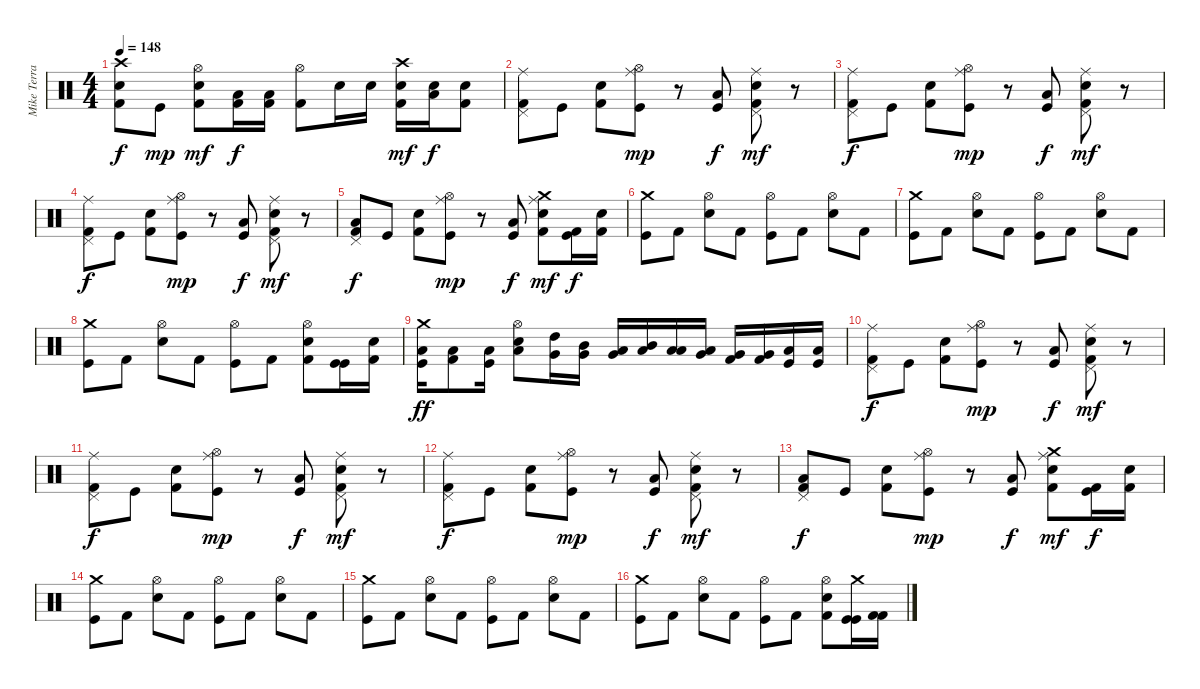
\track ("Mike Terrana" "Mike Terra") {instrument percussion}
\staff {score}
\articulation defaults
\ts (4 4)
\tempo 148
\clef neutral
\ks c
("Crash high (hit)" "Kick (hit) 2" "Snare (hit) 2").8{dy f} "Kick (hit)".8{dy mp} ("Hi-Hat (open)" "Kick (hit) 2" "Snare (hit) 2").8{dy mf} ("Low Floor Tom (hit)" "Kick (hit) 2").16{dy f} ("Low Floor Tom (hit)" "Kick (hit) 2").16 ("Hi-Hat (open)" "Kick (hit) 2").8 "Snare (hit) 2".16 "Snare (hit) 2".16 ("Crash high (hit)" "Kick (hit) 2" "Snare (hit) 2").16{dy mf} ("Low Floor Tom (hit)" "Snare (hit) 2").16{dy f} ("Kick (hit) 2" "Snare (hit) 2").8 |
("Pedal Hi-Hat (hit)" "Ride (middle)" "Kick (hit) 2").8 "Kick (hit)".8 ("Kick (hit) 2" "Snare (hit) 2").8 ("Hi-Hat (open)" "Ride (middle)" "Kick (hit)").8{dy mp} r.8 ("Kick (hit)" "Low Floor Tom (hit)").8{dy f} ("Pedal Hi-Hat (hit)" "Ride (middle)" "Kick (hit) 2" "Snare (hit) 2").8{dy mf} r.8 |
("Pedal Hi-Hat (hit)" "Ride (middle)" "Kick (hit) 2").8{dy f} "Kick (hit)".8 ("Kick (hit) 2" "Snare (hit) 2").8 ("Hi-Hat (open)" "Ride (middle)" "Kick (hit)").8{dy mp} r.8 ("Kick (hit)" "Low Floor Tom (hit)").8{dy f} ("Pedal Hi-Hat (hit)" "Ride (middle)" "Kick (hit) 2" "Snare (hit) 2").8{dy mf} r.8 |
("Pedal Hi-Hat (hit)" "Ride (middle)" "Kick (hit) 2").8{dy f} "Kick (hit)".8 ("Kick (hit) 2" "Snare (hit) 2").8 ("Hi-Hat (open)" "Ride (middle)" "Kick (hit)").8{dy mp} r.8 ("Kick (hit)" "Low Floor Tom (hit)").8{dy f} ("Pedal Hi-Hat (hit)" "Ride (middle)" "Kick (hit) 2" "Snare (hit) 2").8{dy mf} r.8 |
("Pedal Hi-Hat (hit)" "Low Floor Tom (hit)" "Kick (hit) 2").8{dy f} "Kick (hit)".8 ("Kick (hit) 2" "Snare (hit) 2").8 ("Hi-Hat (open)" "Ride (middle)" "Kick (hit)").8{dy mp} r.8 ("Kick (hit)" "Low Floor Tom (hit)").8{dy f} ("Crash medium (hit)" "Ride (middle)" "Kick (hit) 2" "Snare (hit) 2").8{dy mf} ("Kick (hit) 2" "Kick (hit)").16{dy f} ("Kick (hit) 2" "Snare (hit) 2").16 |
("Crash medium (hit)" "Kick (hit)").8 "Kick (hit) 2".8 ("Hi-Hat (open)" "Snare (hit) 2").8 "Kick (hit) 2".8 ("Hi-Hat (open)" "Kick (hit)").8 "Kick (hit) 2".8 ("Hi-Hat (open)" "Snare (hit) 2").8 "Kick (hit) 2".8 |
("Crash medium (hit)" "Kick (hit)").8 "Kick (hit) 2".8 ("Hi-Hat (open)" "Snare (hit) 2").8 "Kick (hit) 2".8 ("Hi-Hat (open)" "Kick (hit)").8 "Kick (hit) 2".8 ("Hi-Hat (open)" "Snare (hit) 2").8 "Kick (hit) 2".8 |
("Crash medium (hit)" "Kick (hit)").8 "Kick (hit) 2".8 ("Hi-Hat (open)" "Snare (hit) 2").8 "Kick (hit) 2".8 ("Hi-Hat (open)" "Kick (hit)").8 "Kick (hit) 2".8 ("Hi-Hat (open)" "Kick (hit) 2" "Snare (hit) 2").8 ("Kick (hit)" "Kick (hit)").16 ("Kick (hit) 2" "Snare (hit) 2").16 |
("Crash medium (hit)" "Low Floor Tom (hit)" "Kick (hit)").16{dy ff} ("Low Floor Tom (hit)" "Kick (hit) 2").8 ("Low Floor Tom (hit)" "Kick (hit)").16 ("Hi-Hat (open)" "Low Floor Tom (hit)" "Snare (hit) 2").8 ("High Tom (hit)" "Very Low Tom (hit)").16 ("Mid Tom (hit)" "Very Low Tom (hit)").16 ("Low Tom (hit)" "Very Low Tom (hit)").16 ("Mid Tom (hit)" "Low Floor Tom (hit)").16 ("Low Tom (hit)" "Low Floor Tom (hit)").16 ("Very Low Tom (hit)" "Low Floor Tom (hit)").16 ("Very Low Tom (hit)" "Kick (hit) 2").16 ("Very Low Tom (hit)" "Kick (hit) 2").16 ("Low Floor Tom (hit)" "Kick (hit)").16 ("Low Floor Tom (hit)" "Kick (hit)").16 |
("Pedal Hi-Hat (hit)" "Ride (middle)" "Kick (hit) 2").8{dy f} "Kick (hit)".8 ("Kick (hit) 2" "Snare (hit) 2").8 ("Hi-Hat (open)" "Ride (middle)" "Kick (hit)").8{dy mp} r.8 ("Kick (hit)" "Low Floor Tom (hit)").8{dy f} ("Pedal Hi-Hat (hit)" "Ride (middle)" "Kick (hit) 2" "Snare (hit) 2").8{dy mf} r.8 |
("Pedal Hi-Hat (hit)" "Ride (middle)" "Kick (hit) 2").8{dy f} "Kick (hit)".8 ("Kick (hit) 2" "Snare (hit) 2").8 ("Hi-Hat (open)" "Ride (middle)" "Kick (hit)").8{dy mp} r.8 ("Kick (hit)" "Low Floor Tom (hit)").8{dy f} ("Pedal Hi-Hat (hit)" "Ride (middle)" "Kick (hit) 2" "Snare (hit) 2").8{dy mf} r.8 |
("Pedal Hi-Hat (hit)" "Ride (middle)" "Kick (hit) 2").8{dy f} "Kick (hit)".8 ("Kick (hit) 2" "Snare (hit) 2").8 ("Hi-Hat (open)" "Ride (middle)" "Kick (hit)").8{dy mp} r.8 ("Kick (hit)" "Low Floor Tom (hit)").8{dy f} ("Pedal Hi-Hat (hit)" "Ride (middle)" "Kick (hit) 2" "Snare (hit) 2").8{dy mf} r.8 |
("Pedal Hi-Hat (hit)" "Low Floor Tom (hit)" "Kick (hit) 2").8{dy f} "Kick (hit)".8 ("Kick (hit) 2" "Snare (hit) 2").8 ("Hi-Hat (open)" "Ride (middle)" "Kick (hit)").8{dy mp} r.8 ("Kick (hit)" "Low Floor Tom (hit)").8{dy f} ("Crash medium (hit)" "Ride (middle)" "Kick (hit) 2" "Snare (hit) 2").8{dy mf} ("Kick (hit) 2" "Kick (hit)").16{dy f} ("Kick (hit) 2" "Snare (hit) 2").16 |
("Crash medium (hit)" "Kick (hit)").8 "Kick (hit) 2".8 ("Hi-Hat (open)" "Snare (hit) 2").8 "Kick (hit) 2".8 ("Hi-Hat (open)" "Kick (hit)").8 "Kick (hit) 2".8 ("Hi-Hat (open)" "Snare (hit) 2").8 "Kick (hit) 2".8 |
("Crash medium (hit)" "Kick (hit)").8 "Kick (hit) 2".8 ("Hi-Hat (open)" "Snare (hit) 2").8 "Kick (hit) 2".8 ("Hi-Hat (open)" "Kick (hit)").8 "Kick (hit) 2".8 ("Hi-Hat (open)" "Snare (hit) 2").8 "Kick (hit) 2".8 |
("Crash medium (hit)" "Kick (hit)").8 "Kick (hit) 2".8 ("Hi-Hat (open)" "Snare (hit) 2").8 "Kick (hit) 2".8 ("Hi-Hat (open)" "Kick (hit)").8 "Kick (hit) 2".8 ("Hi-Hat (open)" "Kick (hit) 2" "Snare (hit) 2").8 ("Crash medium (hit)" "Kick (hit)" "Kick (hit)").16 ("Kick (hit) 2" "Kick (hit) 2").16
